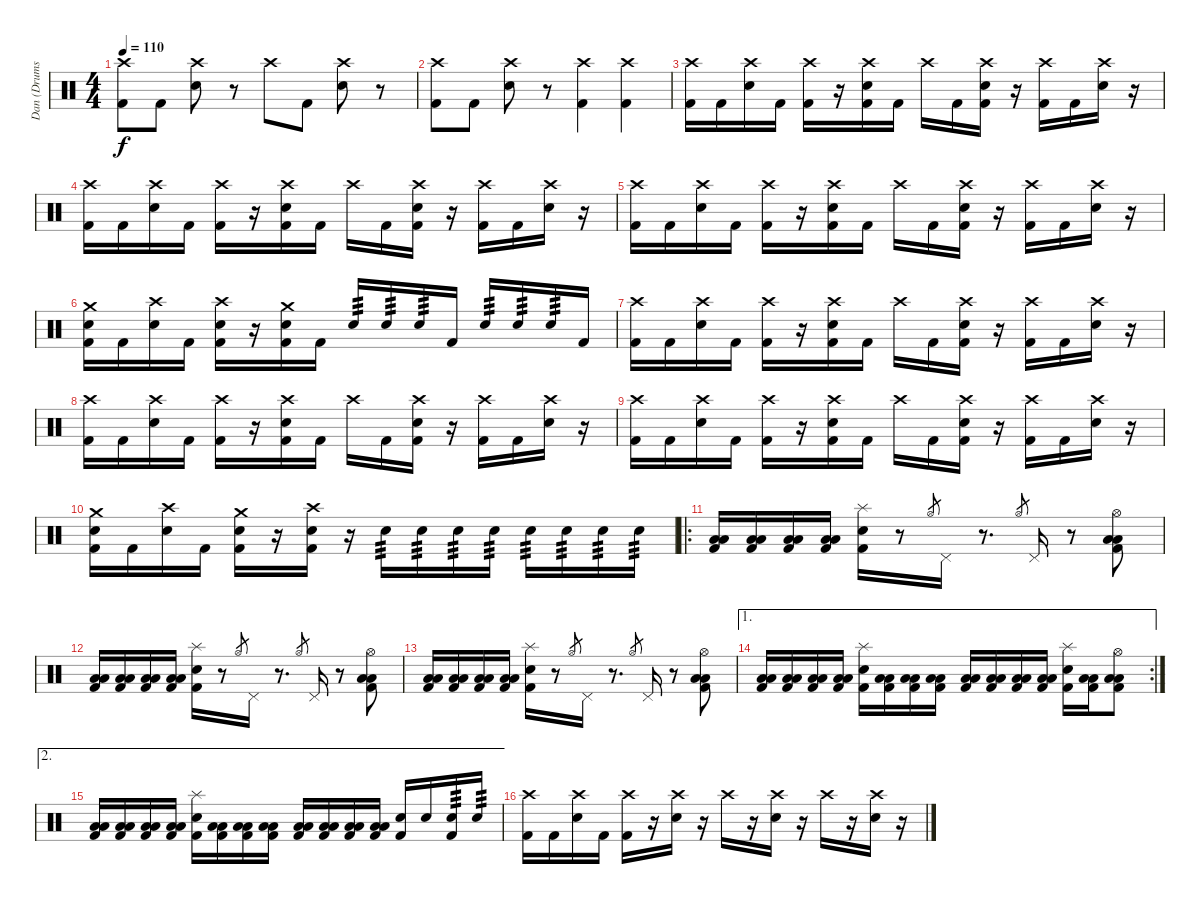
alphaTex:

\track ("Dan (Drums)" "Dan (Drums") {instrument percussion}
\staff {score}
\articulation defaults
\ts (4 4)
\tempo 110
\clef neutral
\ks c
("Crash high (hit)" "Kick (hit) 2").8{dy f} "Kick (hit) 2".8 ("Crash high (hit)" "Electric Snare (hit)").8 r.8 "Crash high (hit)".8 "Kick (hit) 2".8 ("Crash high (hit)" "Electric Snare (hit)").8 r.8 |
("Crash high (hit)" "Kick (hit) 2").8 "Kick (hit) 2".8 ("Crash high (hit)" "Electric Snare (hit)").8 r.8 ("Crash high (hit)" "Kick (hit) 2").4 ("Crash high (hit)" "Kick (hit) 2").4 |
("Crash high (hit)" "Kick (hit) 2").16 "Kick (hit) 2".16 ("Crash high (hit)" "Electric Snare (hit)").16 "Kick (hit) 2".16 ("Crash high (hit)" "Kick (hit) 2").16 r.16 ("Crash high (hit)" "Electric Snare (hit)" "Kick (hit) 2").16 "Kick (hit) 2".16 "Crash high (hit)".16 "Kick (hit) 2".16 ("Crash high (hit)" "Electric Snare (hit)" "Kick (hit) 2").16 r.16 ("Crash high (hit)" "Kick (hit) 2").16 "Kick (hit) 2".16 ("Crash high (hit)" "Electric Snare (hit)").16 r.16 |
("Crash high (hit)" "Kick (hit) 2").16 "Kick (hit) 2".16 ("Crash high (hit)" "Electric Snare (hit)").16 "Kick (hit) 2".16 ("Crash high (hit)" "Kick (hit) 2").16 r.16 ("Crash high (hit)" "Electric Snare (hit)" "Kick (hit) 2").16 "Kick (hit) 2".16 "Crash high (hit)".16 "Kick (hit) 2".16 ("Crash high (hit)" "Electric Snare (hit)" "Kick (hit) 2").16 r.16 ("Crash high (hit)" "Kick (hit) 2").16 "Kick (hit) 2".16 ("Crash high (hit)" "Electric Snare (hit)").16 r.16 |
("Crash high (hit)" "Kick (hit) 2").16 "Kick (hit) 2".16 ("Crash high (hit)" "Electric Snare (hit)").16 "Kick (hit) 2".16 ("Crash high (hit)" "Kick (hit) 2").16 r.16 ("Crash high (hit)" "Electric Snare (hit)" "Kick (hit) 2").16 "Kick (hit) 2".16 "Crash high (hit)".16 "Kick (hit) 2".16 ("Crash high (hit)" "Electric Snare (hit)" "Kick (hit) 2").16 r.16 ("Crash high (hit)" "Kick (hit) 2").16 "Kick (hit) 2".16 ("Crash high (hit)" "Electric Snare (hit)").16 r.16 |
("Crash medium (hit)" "Electric Snare (hit)" "Kick (hit) 2").16 "Kick (hit) 2".16 ("Crash high (hit)" "Electric Snare (hit)").16 "Kick (hit) 2".16 ("Crash high (hit)" "Electric Snare (hit)" "Kick (hit) 2").16 r.16 ("Crash medium (hit)" "Electric Snare (hit)" "Kick (hit) 2").16 "Kick (hit) 2".16 "Electric Snare (hit)".16{tp 3} "Electric Snare (hit)".16{tp 3} "Electric Snare (hit)".16{tp 3} "Kick (hit) 2".16 "Electric Snare (hit)".16{tp 3} "Electric Snare (hit)".16{tp 3} "Electric Snare (hit)".16{tp 3} "Kick (hit) 2".16 |
("Crash high (hit)" "Kick (hit) 2").16 "Kick (hit) 2".16 ("Crash high (hit)" "Electric Snare (hit)").16 "Kick (hit) 2".16 ("Crash high (hit)" "Kick (hit) 2").16 r.16 ("Crash high (hit)" "Electric Snare (hit)" "Kick (hit) 2").16 "Kick (hit) 2".16 "Crash high (hit)".16 "Kick (hit) 2".16 ("Crash high (hit)" "Electric Snare (hit)" "Kick (hit) 2").16 r.16 ("Crash high (hit)" "Kick (hit) 2").16 "Kick (hit) 2".16 ("Crash high (hit)" "Electric Snare (hit)").16 r.16 |
("Crash high (hit)" "Kick (hit) 2").16 "Kick (hit) 2".16 ("Crash high (hit)" "Electric Snare (hit)").16 "Kick (hit) 2".16 ("Crash high (hit)" "Kick (hit) 2").16 r.16 ("Crash high (hit)" "Electric Snare (hit)" "Kick (hit) 2").16 "Kick (hit) 2".16 "Crash high (hit)".16 "Kick (hit) 2".16 ("Crash high (hit)" "Electric Snare (hit)" "Kick (hit) 2").16 r.16 ("Crash high (hit)" "Kick (hit) 2").16 "Kick (hit) 2".16 ("Crash high (hit)" "Electric Snare (hit)").16 r.16 |
("Crash high (hit)" "Kick (hit) 2").16 "Kick (hit) 2".16 ("Crash high (hit)" "Electric Snare (hit)").16 "Kick (hit) 2".16 ("Crash high (hit)" "Kick (hit) 2").16 r.16 ("Crash high (hit)" "Electric Snare (hit)" "Kick (hit) 2").16 "Kick (hit) 2".16 "Crash high (hit)".16 "Kick (hit) 2".16 ("Crash high (hit)" "Electric Snare (hit)" "Kick (hit) 2").16 r.16 ("Crash high (hit)" "Kick (hit) 2").16 "Kick (hit) 2".16 ("Crash high (hit)" "Electric Snare (hit)").16 r.16 |
("Crash medium (hit)" "Electric Snare (hit)" "Kick (hit) 2").16 "Kick (hit) 2".16 ("Crash high (hit)" "Electric Snare (hit)").16 "Kick (hit) 2".16 ("Crash medium (hit)" "Electric Snare (hit)" "Kick (hit) 2").16 r.16 ("Crash high (hit)" "Electric Snare (hit)" "Kick (hit) 2").16 r.16 "Electric Snare (hit)".16{tp 3} "Electric Snare (hit)".16{tp 3} "Electric Snare (hit)".16{tp 3} "Electric Snare (hit)".16{tp 3} "Electric Snare (hit)".16{tp 3} "Electric Snare (hit)".16{tp 3} "Electric Snare (hit)".16{tp 3} "Electric Snare (hit)".16{tp 3} |
\ro
("Low Tom (hit)" "Low Floor Tom (hit)" "Kick (hit) 2").16 ("Low Tom (hit)" "Low Floor Tom (hit)" "Kick (hit) 2").16 ("Low Tom (hit)" "Low Floor Tom (hit)" "Kick (hit) 2").16 ("Low Tom (hit)" "Low Floor Tom (hit)" "Kick (hit) 2").16 ("Splash (hit)" "Electric Snare (hit)" "Kick (hit) 2").16 r.8 "Hi-Hat (open)".8{gr} "Pedal Hi-Hat (hit)".16 r.8{d} "Hi-Hat (open)".8{gr} "Pedal Hi-Hat (hit)".16 r.8 ("Hi-Hat (open)" "Low Tom (hit)" "Low Floor Tom (hit)" "Kick (hit) 2").8 |
("Low Tom (hit)" "Low Floor Tom (hit)" "Kick (hit) 2").16 ("Low Tom (hit)" "Low Floor Tom (hit)" "Kick (hit) 2").16 ("Low Tom (hit)" "Low Floor Tom (hit)" "Kick (hit) 2").16 ("Low Tom (hit)" "Low Floor Tom (hit)" "Kick (hit) 2").16 ("Splash (hit)" "Electric Snare (hit)" "Kick (hit) 2").16 r.8 "Hi-Hat (open)".8{gr} "Pedal Hi-Hat (hit)".16 r.8{d} "Hi-Hat (open)".8{gr} "Pedal Hi-Hat (hit)".16 r.8 ("Hi-Hat (open)" "Low Tom (hit)" "Low Floor Tom (hit)" "Kick (hit) 2").8 |
("Low Tom (hit)" "Low Floor Tom (hit)" "Kick (hit) 2").16 ("Low Tom (hit)" "Low Floor Tom (hit)" "Kick (hit) 2").16 ("Low Tom (hit)" "Low Floor Tom (hit)" "Kick (hit) 2").16 ("Low Tom (hit)" "Low Floor Tom (hit)" "Kick (hit) 2").16 ("Splash (hit)" "Electric Snare (hit)" "Kick (hit) 2").16 r.8 "Hi-Hat (open)".8{gr} "Pedal Hi-Hat (hit)".16 r.8{d} "Hi-Hat (open)".8{gr} "Pedal Hi-Hat (hit)".16 r.8 ("Hi-Hat (open)" "Low Tom (hit)" "Low Floor Tom (hit)" "Kick (hit) 2").8 |
\ae 1
\rc 2
("Low Tom (hit)" "Low Floor Tom (hit)" "Kick (hit) 2").16 ("Low Tom (hit)" "Low Floor Tom (hit)" "Kick (hit) 2").16 ("Low Tom (hit)" "Low Floor Tom (hit)" "Kick (hit) 2").16 ("Low Tom (hit)" "Low Floor Tom (hit)" "Kick (hit) 2").16 ("Splash (hit)" "Electric Snare (hit)" "Kick (hit) 2").16 ("Low Tom (hit)" "Low Floor Tom (hit)" "Kick (hit) 2").16 ("Low Tom (hit)" "Low Floor Tom (hit)" "Kick (hit) 2").16 ("Low Tom (hit)" "Low Floor Tom (hit)" "Kick (hit) 2").16 ("Low Tom (hit)" "Low Floor Tom (hit)" "Kick (hit) 2").16 ("Low Tom (hit)" "Low Floor Tom (hit)" "Kick (hit) 2").16 ("Low Tom (hit)" "Low Floor Tom (hit)" "Kick (hit) 2").16 ("Low Tom (hit)" "Low Floor Tom (hit)" "Kick (hit) 2").16 ("Splash (hit)" "Electric Snare (hit)" "Kick (hit) 2").16 ("Low Tom (hit)" "Low Floor Tom (hit)" "Kick (hit) 2").16 ("Hi-Hat (open)" "Low Tom (hit)" "Low Floor Tom (hit)" "Kick (hit) 2").8 |
\ae 2
("Low Tom (hit)" "Low Floor Tom (hit)" "Kick (hit) 2").16 ("Low Tom (hit)" "Low Floor Tom (hit)" "Kick (hit) 2").16 ("Low Tom (hit)" "Low Floor Tom (hit)" "Kick (hit) 2").16 ("Low Tom (hit)" "Low Floor Tom (hit)" "Kick (hit) 2").16 ("Splash (hit)" "Electric Snare (hit)" "Kick (hit) 2").16 ("Low Tom (hit)" "Low Floor Tom (hit)" "Kick (hit) 2").16 ("Low Tom (hit)" "Low Floor Tom (hit)" "Kick (hit) 2").16 ("Low Tom (hit)" "Low Floor Tom (hit)" "Kick (hit) 2").16 ("Low Tom (hit)" "Low Floor Tom (hit)" "Kick (hit) 2").16 ("Low Tom (hit)" "Low Floor Tom (hit)" "Kick (hit) 2").16 ("Low Tom (hit)" "Low Floor Tom (hit)" "Kick (hit) 2").16 ("Low Tom (hit)" "Low Floor Tom (hit)" "Kick (hit) 2").16 ("Electric Snare (hit)" "Kick (hit) 2").16 "Electric Snare (hit)".16 ("Electric Snare (hit)" "Kick (hit) 2").16{tp 3} "Electric Snare (hit)".16{tp 3} |
("Crash high (hit)" "Kick (hit) 2").16 "Kick (hit) 2".16 ("Crash high (hit)" "Electric Snare (hit)").16 "Kick (hit) 2".16 ("Crash high (hit)" "Kick (hit) 2").16 r.16 ("Crash high (hit)" "Electric Snare (hit)").16 r.16 "Crash high (hit)".16 r.16 ("Crash high (hit)" "Electric Snare (hit)").16 r.16 "Crash high (hit)".16 r.16 ("Crash high (hit)" "Electric Snare (hit)").16 r.16
